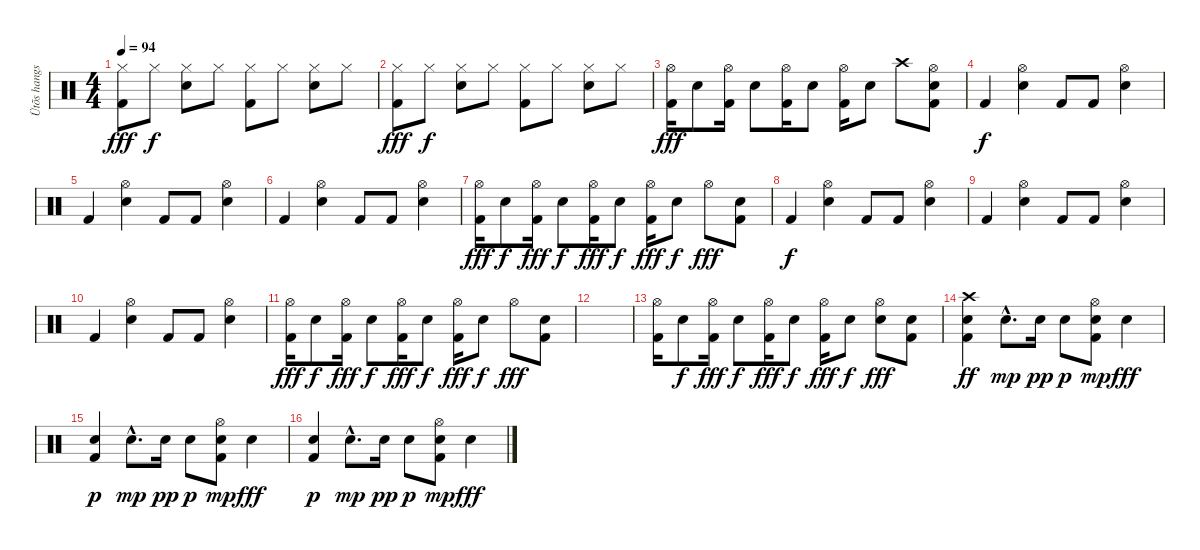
\track ("Ütõs hangszer" "Ütõs hangs") {instrument percussion}
\staff {score}
\articulation defaults
\ts (4 4)
\tempo 94
\clef neutral
\ks c
("Kick (hit) 2" "Hi-Hat (closed)").8{dy fff} "Hi-Hat (closed)".8{dy f} ("Electric Snare (hit)" "Hi-Hat (closed)").8 "Hi-Hat (closed)".8 ("Kick (hit) 2" "Hi-Hat (closed)").8 "Hi-Hat (closed)".8 ("Electric Snare (hit)" "Hi-Hat (closed)").8 "Hi-Hat (closed)".8 |
("Kick (hit) 2" "Hi-Hat (closed)").8{dy fff} "Hi-Hat (closed)".8{dy f} ("Electric Snare (hit)" "Hi-Hat (closed)").8 "Hi-Hat (closed)".8 ("Kick (hit) 2" "Hi-Hat (closed)").8 "Hi-Hat (closed)".8 ("Electric Snare (hit)" "Hi-Hat (closed)").8 "Hi-Hat (closed)".8 |
("Kick (hit) 2" "Hi-Hat (open)").16{dy fff} "Electric Snare (hit)".8 ("Kick (hit) 2" "Hi-Hat (open)").16 "Electric Snare (hit)".8 ("Kick (hit) 2" "Hi-Hat (open)").16 "Electric Snare (hit)".8 ("Kick (hit) 2" "Hi-Hat (open)").16 "Electric Snare (hit)".8 "Crash high (hit)".8 ("Electric Snare (hit)" "Kick (hit) 2" "Hi-Hat (open)").8 |
"Kick (hit) 2".4{dy f} ("Electric Snare (hit)" "Hi-Hat (open)").4 "Kick (hit) 2".8 "Kick (hit) 2".8 ("Electric Snare (hit)" "Hi-Hat (open)").4 |
"Kick (hit) 2".4 ("Electric Snare (hit)" "Hi-Hat (open)").4 "Kick (hit) 2".8 "Kick (hit) 2".8 ("Electric Snare (hit)" "Hi-Hat (open)").4 |
"Kick (hit) 2".4 ("Electric Snare (hit)" "Hi-Hat (open)").4 "Kick (hit) 2".8 "Kick (hit) 2".8 ("Electric Snare (hit)" "Hi-Hat (open)").4 |
("Kick (hit) 2" "Hi-Hat (open)").16{dy fff} "Electric Snare (hit)".8{dy f} ("Kick (hit) 2" "Hi-Hat (open)").16{dy fff} "Electric Snare (hit)".8{dy f} ("Kick (hit) 2" "Hi-Hat (open)").16{dy fff} "Electric Snare (hit)".8{dy f} ("Kick (hit) 2" "Hi-Hat (open)").16{dy fff} "Electric Snare (hit)".8{dy f} "Hi-Hat (open)".8{dy fff} ("Electric Snare (hit)" "Kick (hit) 2").8 |
"Kick (hit) 2".4{dy f} ("Electric Snare (hit)" "Hi-Hat (open)").4 "Kick (hit) 2".8 "Kick (hit) 2".8 ("Electric Snare (hit)" "Hi-Hat (open)").4 |
"Kick (hit) 2".4 ("Electric Snare (hit)" "Hi-Hat (open)").4 "Kick (hit) 2".8 "Kick (hit) 2".8 ("Electric Snare (hit)" "Hi-Hat (open)").4 |
"Kick (hit) 2".4 ("Electric Snare (hit)" "Hi-Hat (open)").4 "Kick (hit) 2".8 "Kick (hit) 2".8 ("Electric Snare (hit)" "Hi-Hat (open)").4 |
("Kick (hit) 2" "Hi-Hat (open)").16{dy fff} "Electric Snare (hit)".8{dy f} ("Kick (hit) 2" "Hi-Hat (open)").16{dy fff} "Electric Snare (hit)".8{dy f} ("Kick (hit) 2" "Hi-Hat (open)").16{dy fff} "Electric Snare (hit)".8{dy f} ("Kick (hit) 2" "Hi-Hat (open)").16{dy fff} "Electric Snare (hit)".8{dy f} "Hi-Hat (open)".8{dy fff} ("Electric Snare (hit)" "Kick (hit) 2").8 |
|
("Kick (hit) 2" "Hi-Hat (open)").16 "Electric Snare (hit)".8{dy f} ("Kick (hit) 2" "Hi-Hat (open)").16{dy fff} "Electric Snare (hit)".8{dy f} ("Kick (hit) 2" "Hi-Hat (open)").16{dy fff} "Electric Snare (hit)".8{dy f} ("Kick (hit) 2" "Hi-Hat (open)").16{dy fff} "Electric Snare (hit)".8{dy f} ("Electric Snare (hit)" "Hi-Hat (open)").8{dy fff} ("Electric Snare (hit)" "Kick (hit) 2").8 |
("Electric Snare (hit)" "Kick (hit) 2" "Crash high (hit)").4{dy ff} "Electric Snare (hit)"{hac}.8{d dy mp} "Electric Snare (hit)".16{dy pp} "Electric Snare (hit)".8{dy p} ("Electric Snare (hit)" "Kick (hit) 2" "Hi-Hat (open)").8{dy mp} "Electric Snare (hit)".4{dy fff} |
("Electric Snare (hit)" "Kick (hit) 2").4{dy p} "Electric Snare (hit)"{hac}.8{d dy mp} "Electric Snare (hit)".16{dy pp} "Electric Snare (hit)".8{dy p} ("Electric Snare (hit)" "Kick (hit) 2" "Hi-Hat (open)").8{dy mp} "Electric Snare (hit)".4{dy fff} |
("Electric Snare (hit)" "Kick (hit) 2").4{dy p} "Electric Snare (hit)"{hac}.8{d dy mp} "Electric Snare (hit)".16{dy pp} "Electric Snare (hit)".8{dy p} ("Electric Snare (hit)" "Kick (hit) 2" "Hi-Hat (open)").8{dy mp} "Electric Snare (hit)".4{dy fff}
